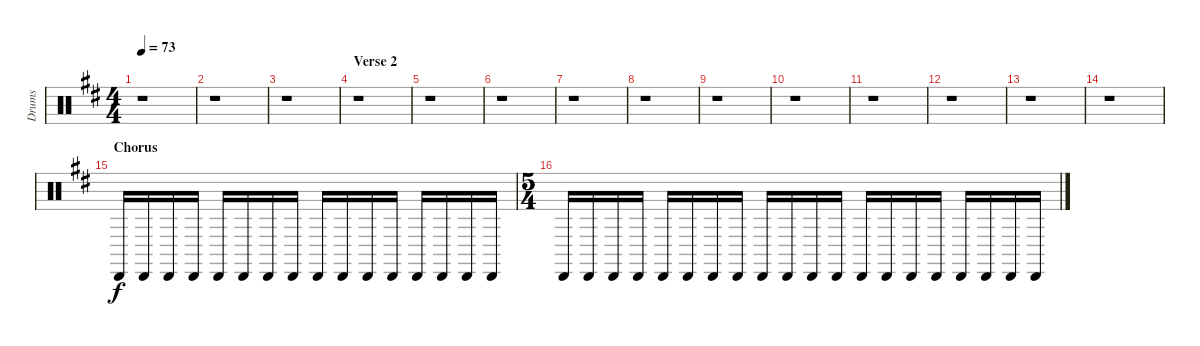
\track ("Drums" "Drums") {instrument percussion}
\staff {score}
\articulation defaults
\ts (4 4)
\tempo 73
\clef neutral
\ks d
r.1{dy f} |
r.1 |
r.1 |
\section ("" "Verse 2")
r.1 |
r.1 |
r.1 |
r.1 |
r.1 |
r.1 |
r.1 |
r.1 |
r.1 |
r.1 |
r.1 |
\section ("" "Chorus")
"Cabasa (hit)".16 "Cabasa (hit)".16 "Cabasa (hit)".16 "Cabasa (hit)".16 "Cabasa (hit)".16 "Cabasa (hit)".16 "Cabasa (hit)".16 "Cabasa (hit)".16 "Cabasa (hit)".16 "Cabasa (hit)".16 "Cabasa (hit)".16 "Cabasa (hit)".16 "Cabasa (hit)".16 "Cabasa (hit)".16 "Cabasa (hit)".16 "Cabasa (hit)".16 |
\ts (5 4)
"Cabasa (hit)".16 "Cabasa (hit)".16 "Cabasa (hit)".16 "Cabasa (hit)".16 "Cabasa (hit)".16 "Cabasa (hit)".16 "Cabasa (hit)".16 "Cabasa (hit)".16 "Cabasa (hit)".16 "Cabasa (hit)".16 "Cabasa (hit)".16 "Cabasa (hit)".16 "Cabasa (hit)".16 "Cabasa (hit)".16 "Cabasa (hit)".16 "Cabasa (hit)".16 "Cabasa (hit)".16 "Cabasa (hit)".16 "Cabasa (hit)".16 "Cabasa (hit)".16
